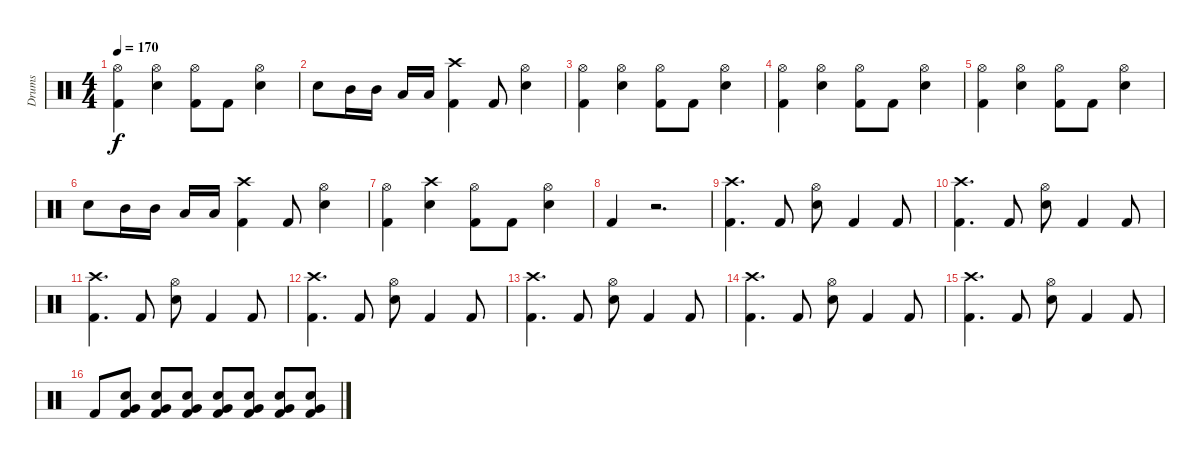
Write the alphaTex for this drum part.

\track ("Drums" "Drums") {instrument percussion}
\staff {score}
\articulation defaults
\ts (4 4)
\tempo 170
\clef neutral
\ks c
("Hi-Hat (open)" "Kick (hit) 2").4{dy f} ("Hi-Hat (open)" "Snare (hit) 2").4 ("Hi-Hat (open)" "Kick (hit) 2").8 "Kick (hit) 2".8 ("Hi-Hat (open)" "Snare (hit) 2").4 |
"Snare (hit) 2".8 "Mid Tom (hit)".16 "Mid Tom (hit)".16 "Low Tom (hit)".16 "Low Tom (hit)".16 ("Crash high (hit)" "Kick (hit) 2").4 "Kick (hit) 2".8 ("Hi-Hat (open)" "Snare (hit) 2").4 |
("Hi-Hat (open)" "Kick (hit) 2").4 ("Hi-Hat (open)" "Snare (hit) 2").4 ("Hi-Hat (open)" "Kick (hit) 2").8 "Kick (hit) 2".8 ("Hi-Hat (open)" "Snare (hit) 2").4 |
("Hi-Hat (open)" "Kick (hit) 2").4 ("Hi-Hat (open)" "Snare (hit) 2").4 ("Hi-Hat (open)" "Kick (hit) 2").8 "Kick (hit) 2".8 ("Hi-Hat (open)" "Snare (hit) 2").4 |
("Hi-Hat (open)" "Kick (hit) 2").4 ("Hi-Hat (open)" "Snare (hit) 2").4 ("Hi-Hat (open)" "Kick (hit) 2").8 "Kick (hit) 2".8 ("Hi-Hat (open)" "Snare (hit) 2").4 |
"Snare (hit) 2".8 "Mid Tom (hit)".16 "Mid Tom (hit)".16 "Low Tom (hit)".16 "Low Tom (hit)".16 ("Crash high (hit)" "Kick (hit) 2").4 "Kick (hit) 2".8 ("Hi-Hat (open)" "Snare (hit) 2").4 |
("Hi-Hat (open)" "Kick (hit) 2").4 ("Crash high (hit)" "Snare (hit) 2").4 ("Hi-Hat (open)" "Kick (hit) 2").8 "Kick (hit) 2".8 ("Hi-Hat (open)" "Snare (hit) 2").4 |
"Kick (hit) 2".4 r.2{d} |
("Crash high (hit)" "Kick (hit) 2").4{d} "Kick (hit) 2".8 ("Hi-Hat (open)" "Snare (hit) 2").8 "Kick (hit) 2".4 "Kick (hit) 2".8 |
("Crash high (hit)" "Kick (hit) 2").4{d} "Kick (hit) 2".8 ("Hi-Hat (open)" "Snare (hit) 2").8 "Kick (hit) 2".4 "Kick (hit) 2".8 |
("Crash high (hit)" "Kick (hit) 2").4{d} "Kick (hit) 2".8 ("Hi-Hat (open)" "Snare (hit) 2").8 "Kick (hit) 2".4 "Kick (hit) 2".8 |
("Crash high (hit)" "Kick (hit) 2").4{d} "Kick (hit) 2".8 ("Hi-Hat (open)" "Snare (hit) 2").8 "Kick (hit) 2".4 "Kick (hit) 2".8 |
("Crash high (hit)" "Kick (hit) 2").4{d} "Kick (hit) 2".8 ("Hi-Hat (open)" "Snare (hit) 2").8 "Kick (hit) 2".4 "Kick (hit) 2".8 |
("Crash high (hit)" "Kick (hit) 2").4{d} "Kick (hit) 2".8 ("Hi-Hat (open)" "Snare (hit) 2").8 "Kick (hit) 2".4 "Kick (hit) 2".8 |
("Crash high (hit)" "Kick (hit) 2").4{d} "Kick (hit) 2".8 ("Hi-Hat (open)" "Snare (hit) 2").8 "Kick (hit) 2".4 "Kick (hit) 2".8 |
"Kick (hit) 2".8 ("Snare (hit) 2" "Very Low Tom (hit)" "Kick (hit) 2").8 ("Snare (hit) 2" "Very Low Tom (hit)" "Kick (hit) 2").8 ("Snare (hit) 2" "Very Low Tom (hit)" "Kick (hit) 2").8 ("Snare (hit) 2" "Very Low Tom (hit)" "Kick (hit) 2").8 ("Snare (hit) 2" "Very Low Tom (hit)" "Kick (hit) 2").8 ("Snare (hit) 2" "Very Low Tom (hit)" "Kick (hit) 2").8 ("Snare (hit) 2" "Very Low Tom (hit)" "Kick (hit) 2").8
